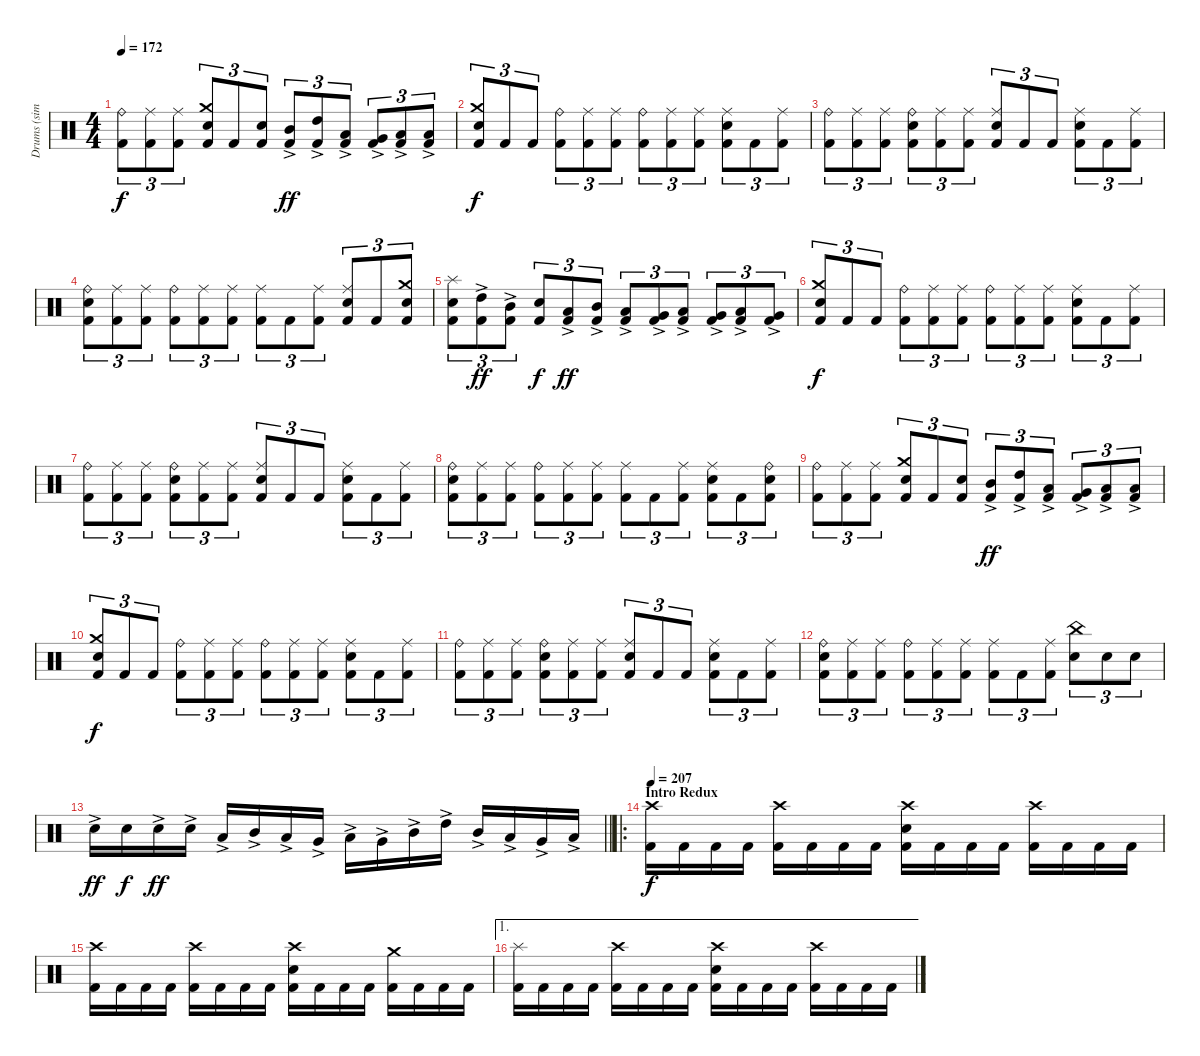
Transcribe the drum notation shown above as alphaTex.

\track ("Drums (simplified)" "Drums (sim") {instrument percussion}
\staff {score}
\articulation defaults
\ts (4 4)
\tempo 172
\clef neutral
\ks c
("Ride (bell)" "Kick (hit) 2").8{tu (3 2) dy f} ("Ride (middle)" "Kick (hit) 2").8{tu (3 2)} ("Ride (middle)" "Kick (hit) 2").8{tu (3 2)} ("Crash medium (hit)" "Electric Snare (hit)" "Kick (hit) 2").8{tu (3 2)} "Kick (hit) 2".8{tu (3 2)} ("Electric Snare (hit)" "Kick (hit) 2").8{tu (3 2)} ("Mid Tom (hit)"{ac} "Kick (hit) 2").8{tu (3 2) dy ff} ("High Tom (hit)"{ac} "Kick (hit) 2").8{tu (3 2)} ("Low Tom (hit)"{ac} "Kick (hit) 2").8{tu (3 2)} ("Very Low Tom (hit)"{ac} "Kick (hit) 2").8{tu (3 2)} ("Low Tom (hit)"{ac} "Kick (hit) 2").8{tu (3 2)} ("Low Floor Tom (hit)"{ac} "Kick (hit) 2").8{tu (3 2)} |
("Crash medium (hit)" "Electric Snare (hit)" "Kick (hit) 2").8{tu (3 2) dy f} "Kick (hit) 2".8{tu (3 2)} "Kick (hit) 2".8{tu (3 2)} ("Ride (bell)" "Kick (hit) 2").8{tu (3 2)} ("Ride (middle)" "Kick (hit) 2").8{tu (3 2)} ("Ride (middle)" "Kick (hit) 2").8{tu (3 2)} ("Ride (bell)" "Kick (hit) 2").8{tu (3 2)} ("Ride (middle)" "Kick (hit) 2").8{tu (3 2)} ("Ride (middle)" "Kick (hit) 2").8{tu (3 2)} ("Ride (middle)" "Electric Snare (hit)" "Kick (hit) 2").8{tu (3 2)} "Kick (hit) 2".8{tu (3 2)} ("Ride (middle)" "Kick (hit) 2").8{tu (3 2)} |
("Ride (bell)" "Kick (hit) 2").8{tu (3 2)} ("Ride (middle)" "Kick (hit) 2").8{tu (3 2)} ("Ride (middle)" "Kick (hit) 2").8{tu (3 2)} ("Ride (bell)" "Electric Snare (hit)" "Kick (hit) 2").8{tu (3 2)} ("Ride (middle)" "Kick (hit) 2").8{tu (3 2)} ("Ride (middle)" "Kick (hit) 2").8{tu (3 2)} ("Ride (middle)" "Electric Snare (hit)" "Kick (hit) 2").8{tu (3 2)} "Kick (hit) 2".8{tu (3 2)} "Kick (hit) 2".8{tu (3 2)} ("Ride (middle)" "Electric Snare (hit)" "Kick (hit) 2").8{tu (3 2)} "Kick (hit) 2".8{tu (3 2)} ("Ride (middle)" "Kick (hit) 2").8{tu (3 2)} |
("Ride (bell)" "Electric Snare (hit)" "Kick (hit) 2").8{tu (3 2)} ("Ride (middle)" "Kick (hit) 2").8{tu (3 2)} ("Ride (middle)" "Kick (hit) 2").8{tu (3 2)} ("Ride (bell)" "Kick (hit) 2").8{tu (3 2)} ("Ride (middle)" "Kick (hit) 2").8{tu (3 2)} ("Ride (middle)" "Kick (hit) 2").8{tu (3 2)} ("Ride (middle)" "Kick (hit) 2").8{tu (3 2)} "Kick (hit) 2".8{tu (3 2)} ("Ride (middle)" "Kick (hit) 2").8{tu (3 2)} ("Ride (middle)" "Electric Snare (hit)" "Kick (hit) 2").8{tu (3 2)} "Kick (hit) 2".8{tu (3 2)} ("Crash medium (hit)" "Electric Snare (hit)" "Kick (hit) 2").8{tu (3 2)} |
("Splash (hit)" "Electric Snare (hit)" "Kick (hit) 2").8{tu (3 2)} ("High Tom (hit)"{ac} "Kick (hit) 2").8{tu (3 2) dy ff} ("Mid Tom (hit)"{ac} "Kick (hit) 2").8{tu (3 2)} ("Electric Snare (hit)" "Kick (hit) 2").8{tu (3 2) dy f} ("Low Tom (hit)"{ac} "Kick (hit) 2").8{tu (3 2) dy ff} ("Mid Tom (hit)"{ac} "Kick (hit) 2").8{tu (3 2)} ("Low Tom (hit)"{ac} "Kick (hit) 2").8{tu (3 2)} ("Very Low Tom (hit)"{ac} "Kick (hit) 2").8{tu (3 2)} ("Low Tom (hit)"{ac} "Kick (hit) 2").8{tu (3 2)} ("Very Low Tom (hit)"{ac} "Kick (hit) 2").8{tu (3 2)} ("Low Floor Tom (hit)"{ac} "Kick (hit) 2").8{tu (3 2)} ("Very Low Tom (hit)"{ac} "Kick (hit) 2").8{tu (3 2)} |
("Crash medium (hit)" "Electric Snare (hit)" "Kick (hit) 2").8{tu (3 2) dy f} "Kick (hit) 2".8{tu (3 2)} "Kick (hit) 2".8{tu (3 2)} ("Ride (bell)" "Kick (hit) 2").8{tu (3 2)} ("Ride (middle)" "Kick (hit) 2").8{tu (3 2)} ("Ride (middle)" "Kick (hit) 2").8{tu (3 2)} ("Ride (bell)" "Kick (hit) 2").8{tu (3 2)} ("Ride (middle)" "Kick (hit) 2").8{tu (3 2)} ("Ride (middle)" "Kick (hit) 2").8{tu (3 2)} ("Ride (middle)" "Electric Snare (hit)" "Kick (hit) 2").8{tu (3 2)} "Kick (hit) 2".8{tu (3 2)} ("Ride (middle)" "Kick (hit) 2").8{tu (3 2)} |
("Ride (bell)" "Kick (hit) 2").8{tu (3 2)} ("Ride (middle)" "Kick (hit) 2").8{tu (3 2)} ("Ride (middle)" "Kick (hit) 2").8{tu (3 2)} ("Ride (bell)" "Electric Snare (hit)" "Kick (hit) 2").8{tu (3 2)} ("Ride (middle)" "Kick (hit) 2").8{tu (3 2)} ("Ride (middle)" "Kick (hit) 2").8{tu (3 2)} ("Ride (middle)" "Electric Snare (hit)" "Kick (hit) 2").8{tu (3 2)} "Kick (hit) 2".8{tu (3 2)} "Kick (hit) 2".8{tu (3 2)} ("Ride (middle)" "Electric Snare (hit)" "Kick (hit) 2").8{tu (3 2)} "Kick (hit) 2".8{tu (3 2)} ("Ride (middle)" "Kick (hit) 2").8{tu (3 2)} |
("Ride (bell)" "Electric Snare (hit)" "Kick (hit) 2").8{tu (3 2)} ("Ride (middle)" "Kick (hit) 2").8{tu (3 2)} ("Ride (middle)" "Kick (hit) 2").8{tu (3 2)} ("Ride (bell)" "Kick (hit) 2").8{tu (3 2)} ("Ride (middle)" "Kick (hit) 2").8{tu (3 2)} ("Ride (middle)" "Kick (hit) 2").8{tu (3 2)} ("Ride (middle)" "Kick (hit) 2").8{tu (3 2)} "Kick (hit) 2".8{tu (3 2)} ("Ride (middle)" "Kick (hit) 2").8{tu (3 2)} ("Ride (middle)" "Electric Snare (hit)" "Kick (hit) 2").8{tu (3 2)} "Kick (hit) 2".8{tu (3 2)} ("Ride (bell)" "Electric Snare (hit)" "Kick (hit) 2").8{tu (3 2)} |
("Ride (bell)" "Kick (hit) 2").8{tu (3 2)} ("Ride (middle)" "Kick (hit) 2").8{tu (3 2)} ("Ride (middle)" "Kick (hit) 2").8{tu (3 2)} ("Crash medium (hit)" "Electric Snare (hit)" "Kick (hit) 2").8{tu (3 2)} "Kick (hit) 2".8{tu (3 2)} ("Electric Snare (hit)" "Kick (hit) 2").8{tu (3 2)} ("Mid Tom (hit)"{ac} "Kick (hit) 2").8{tu (3 2) dy ff} ("High Tom (hit)"{ac} "Kick (hit) 2").8{tu (3 2)} ("Low Tom (hit)"{ac} "Kick (hit) 2").8{tu (3 2)} ("Very Low Tom (hit)"{ac} "Kick (hit) 2").8{tu (3 2)} ("Low Tom (hit)"{ac} "Kick (hit) 2").8{tu (3 2)} ("Low Floor Tom (hit)"{ac} "Kick (hit) 2").8{tu (3 2)} |
("Crash medium (hit)" "Electric Snare (hit)" "Kick (hit) 2").8{tu (3 2) dy f} "Kick (hit) 2".8{tu (3 2)} "Kick (hit) 2".8{tu (3 2)} ("Ride (bell)" "Kick (hit) 2").8{tu (3 2)} ("Ride (middle)" "Kick (hit) 2").8{tu (3 2)} ("Ride (middle)" "Kick (hit) 2").8{tu (3 2)} ("Ride (bell)" "Kick (hit) 2").8{tu (3 2)} ("Ride (middle)" "Kick (hit) 2").8{tu (3 2)} ("Ride (middle)" "Kick (hit) 2").8{tu (3 2)} ("Ride (middle)" "Electric Snare (hit)" "Kick (hit) 2").8{tu (3 2)} "Kick (hit) 2".8{tu (3 2)} ("Ride (middle)" "Kick (hit) 2").8{tu (3 2)} |
("Ride (bell)" "Kick (hit) 2").8{tu (3 2)} ("Ride (middle)" "Kick (hit) 2").8{tu (3 2)} ("Ride (middle)" "Kick (hit) 2").8{tu (3 2)} ("Ride (bell)" "Electric Snare (hit)" "Kick (hit) 2").8{tu (3 2)} ("Ride (middle)" "Kick (hit) 2").8{tu (3 2)} ("Ride (middle)" "Kick (hit) 2").8{tu (3 2)} ("Ride (middle)" "Electric Snare (hit)" "Kick (hit) 2").8{tu (3 2)} "Kick (hit) 2".8{tu (3 2)} "Kick (hit) 2".8{tu (3 2)} ("Ride (middle)" "Electric Snare (hit)" "Kick (hit) 2").8{tu (3 2)} "Kick (hit) 2".8{tu (3 2)} ("Ride (middle)" "Kick (hit) 2").8{tu (3 2)} |
("Ride (bell)" "Electric Snare (hit)" "Kick (hit) 2").8{tu (3 2)} ("Ride (middle)" "Kick (hit) 2").8{tu (3 2)} ("Ride (middle)" "Kick (hit) 2").8{tu (3 2)} ("Ride (bell)" "Kick (hit) 2").8{tu (3 2)} ("Ride (middle)" "Kick (hit) 2").8{tu (3 2)} ("Ride (middle)" "Kick (hit) 2").8{tu (3 2)} ("Ride (middle)" "Kick (hit) 2").8{tu (3 2)} "Kick (hit) 2".8{tu (3 2)} ("Ride (middle)" "Kick (hit) 2").8{tu (3 2)} ("China (hit)" "Electric Snare (hit)").8{tu (3 2)} "Electric Snare (hit)".8{tu (3 2)} "Electric Snare (hit)".8{tu (3 2)} |
\barLineRight lightlight "Electric Snare (hit)"{ac}.16{dy ff} "Electric Snare (hit)".16{dy f} "Electric Snare (hit)"{ac}.16{dy ff} "Electric Snare (hit)"{ac}.16 "Low Tom (hit)"{ac}.16 "Mid Tom (hit)"{ac}.16 "Low Tom (hit)"{ac}.16 "Very Low Tom (hit)"{ac}.16 "Low Tom (hit)"{ac}.16 "Very Low Tom (hit)"{ac}.16 "Mid Tom (hit)"{ac}.16 "High Tom (hit)"{ac}.16 "Mid Tom (hit)"{ac}.16 "Low Tom (hit)"{ac}.16 "Very Low Tom (hit)"{ac}.16 "Low Floor Tom (hit)"{ac}.16
|
\ro
\section ("" "Intro Redux")
\tempo 207
("Crash high (hit)" "Kick (hit) 2").16{dy f} "Kick (hit) 2".16 "Kick (hit) 2".16 "Kick (hit) 2".16 ("Crash high (hit)" "Kick (hit) 2").16 "Kick (hit) 2".16 "Kick (hit) 2".16 "Kick (hit) 2".16 ("Crash high (hit)" "Electric Snare (hit)" "Kick (hit) 2").16 "Kick (hit) 2".16 "Kick (hit) 2".16 "Kick (hit) 2".16 ("Crash high (hit)" "Kick (hit) 2").16 "Kick (hit) 2".16 "Kick (hit) 2".16 "Kick (hit) 2".16 |
("Crash high (hit)" "Kick (hit) 2").16 "Kick (hit) 2".16 "Kick (hit) 2".16 "Kick (hit) 2".16 ("Crash high (hit)" "Kick (hit) 2").16 "Kick (hit) 2".16 "Kick (hit) 2".16 "Kick (hit) 2".16 ("Crash high (hit)" "Electric Snare (hit)" "Kick (hit) 2").16 "Kick (hit) 2".16 "Kick (hit) 2".16 "Kick (hit) 2".16 ("Crash medium (hit)" "Kick (hit) 2").16 "Kick (hit) 2".16 "Kick (hit) 2".16 "Kick (hit) 2".16 |
\ae 1
("Splash (hit)" "Kick (hit) 2").16 "Kick (hit) 2".16 "Kick (hit) 2".16 "Kick (hit) 2".16 ("Crash high (hit)" "Kick (hit) 2").16 "Kick (hit) 2".16 "Kick (hit) 2".16 "Kick (hit) 2".16 ("Crash high (hit)" "Electric Snare (hit)" "Kick (hit) 2").16 "Kick (hit) 2".16 "Kick (hit) 2".16 "Kick (hit) 2".16 ("Crash high (hit)" "Kick (hit) 2").16 "Kick (hit) 2".16 "Kick (hit) 2".16 "Kick (hit) 2".16
